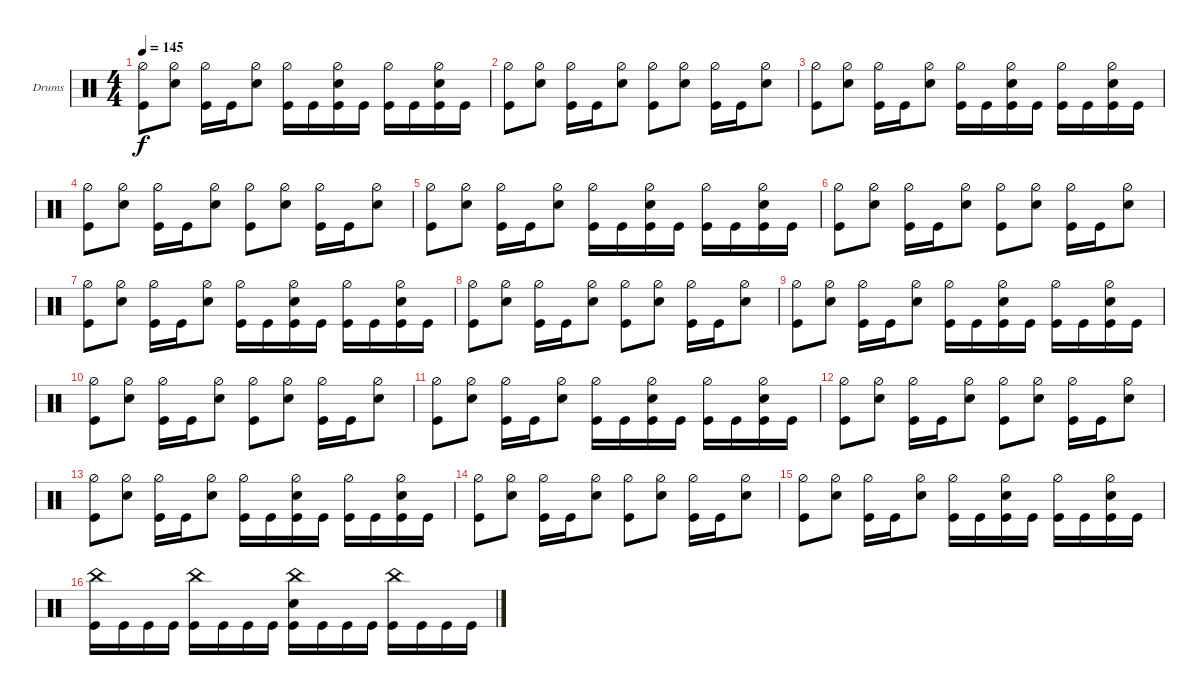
\bracketExtendMode groupsimilarinstruments
\firstSystemTrackNameOrientation horizontal
\otherSystemsTrackNameOrientation horizontal
\track ("Drumkit" "Drums") {instrument percussion}
\staff {score}
\articulation defaults
\ts (4 4)
\tempo 145
\clef neutral
\ks c
("Kick (hit)" "Hi-Hat (half)").8{dy f} ("Snare (hit) 2" "Hi-Hat (half)").8 ("Kick (hit)" "Hi-Hat (half)").16 "Kick (hit)".16 ("Snare (hit) 2" "Hi-Hat (half)").8 ("Kick (hit)" "Hi-Hat (half)").16 "Kick (hit)".16 ("Snare (hit) 2" "Kick (hit)" "Hi-Hat (half)").16 "Kick (hit)".16 ("Kick (hit)" "Hi-Hat (half)").16 "Kick (hit)".16 ("Snare (hit) 2" "Kick (hit)" "Hi-Hat (half)").16 "Kick (hit)".16 |
("Kick (hit)" "Hi-Hat (half)").8 ("Snare (hit) 2" "Hi-Hat (half)").8 ("Kick (hit)" "Hi-Hat (half)").16 "Kick (hit)".16 ("Snare (hit) 2" "Hi-Hat (half)").8 ("Kick (hit)" "Hi-Hat (half)").8 ("Snare (hit) 2" "Hi-Hat (half)").8 ("Kick (hit)" "Hi-Hat (half)").16 "Kick (hit)".16 ("Snare (hit) 2" "Hi-Hat (half)").8 |
("Kick (hit)" "Hi-Hat (half)").8 ("Snare (hit) 2" "Hi-Hat (half)").8 ("Kick (hit)" "Hi-Hat (half)").16 "Kick (hit)".16 ("Snare (hit) 2" "Hi-Hat (half)").8 ("Kick (hit)" "Hi-Hat (half)").16 "Kick (hit)".16 ("Snare (hit) 2" "Kick (hit)" "Hi-Hat (half)").16 "Kick (hit)".16 ("Kick (hit)" "Hi-Hat (half)").16 "Kick (hit)".16 ("Snare (hit) 2" "Kick (hit)" "Hi-Hat (half)").16 "Kick (hit)".16 |
("Kick (hit)" "Hi-Hat (half)").8 ("Snare (hit) 2" "Hi-Hat (half)").8 ("Kick (hit)" "Hi-Hat (half)").16 "Kick (hit)".16 ("Snare (hit) 2" "Hi-Hat (half)").8 ("Kick (hit)" "Hi-Hat (half)").8 ("Snare (hit) 2" "Hi-Hat (half)").8 ("Kick (hit)" "Hi-Hat (half)").16 "Kick (hit)".16 ("Snare (hit) 2" "Hi-Hat (half)").8 |
("Kick (hit)" "Hi-Hat (half)").8 ("Snare (hit) 2" "Hi-Hat (half)").8 ("Kick (hit)" "Hi-Hat (half)").16 "Kick (hit)".16 ("Snare (hit) 2" "Hi-Hat (half)").8 ("Kick (hit)" "Hi-Hat (half)").16 "Kick (hit)".16 ("Snare (hit) 2" "Kick (hit)" "Hi-Hat (half)").16 "Kick (hit)".16 ("Kick (hit)" "Hi-Hat (half)").16 "Kick (hit)".16 ("Snare (hit) 2" "Kick (hit)" "Hi-Hat (half)").16 "Kick (hit)".16 |
("Kick (hit)" "Hi-Hat (half)").8 ("Snare (hit) 2" "Hi-Hat (half)").8 ("Kick (hit)" "Hi-Hat (half)").16 "Kick (hit)".16 ("Snare (hit) 2" "Hi-Hat (half)").8 ("Kick (hit)" "Hi-Hat (half)").8 ("Snare (hit) 2" "Hi-Hat (half)").8 ("Kick (hit)" "Hi-Hat (half)").16 "Kick (hit)".16 ("Snare (hit) 2" "Hi-Hat (half)").8 |
("Kick (hit)" "Hi-Hat (half)").8 ("Snare (hit) 2" "Hi-Hat (half)").8 ("Kick (hit)" "Hi-Hat (half)").16 "Kick (hit)".16 ("Snare (hit) 2" "Hi-Hat (half)").8 ("Kick (hit)" "Hi-Hat (half)").16 "Kick (hit)".16 ("Snare (hit) 2" "Kick (hit)" "Hi-Hat (half)").16 "Kick (hit)".16 ("Kick (hit)" "Hi-Hat (half)").16 "Kick (hit)".16 ("Snare (hit) 2" "Kick (hit)" "Hi-Hat (half)").16 "Kick (hit)".16 |
("Kick (hit)" "Hi-Hat (half)").8 ("Snare (hit) 2" "Hi-Hat (half)").8 ("Kick (hit)" "Hi-Hat (half)").16 "Kick (hit)".16 ("Snare (hit) 2" "Hi-Hat (half)").8 ("Kick (hit)" "Hi-Hat (half)").8 ("Snare (hit) 2" "Hi-Hat (half)").8 ("Kick (hit)" "Hi-Hat (half)").16 "Kick (hit)".16 ("Snare (hit) 2" "Hi-Hat (half)").8 |
("Kick (hit)" "Hi-Hat (half)").8 ("Snare (hit) 2" "Hi-Hat (half)").8 ("Kick (hit)" "Hi-Hat (half)").16 "Kick (hit)".16 ("Snare (hit) 2" "Hi-Hat (half)").8 ("Kick (hit)" "Hi-Hat (half)").16 "Kick (hit)".16 ("Snare (hit) 2" "Kick (hit)" "Hi-Hat (half)").16 "Kick (hit)".16 ("Kick (hit)" "Hi-Hat (half)").16 "Kick (hit)".16 ("Snare (hit) 2" "Kick (hit)" "Hi-Hat (half)").16 "Kick (hit)".16 |
("Kick (hit)" "Hi-Hat (half)").8 ("Snare (hit) 2" "Hi-Hat (half)").8 ("Kick (hit)" "Hi-Hat (half)").16 "Kick (hit)".16 ("Snare (hit) 2" "Hi-Hat (half)").8 ("Kick (hit)" "Hi-Hat (half)").8 ("Snare (hit) 2" "Hi-Hat (half)").8 ("Kick (hit)" "Hi-Hat (half)").16 "Kick (hit)".16 ("Snare (hit) 2" "Hi-Hat (half)").8 |
("Kick (hit)" "Hi-Hat (half)").8 ("Snare (hit) 2" "Hi-Hat (half)").8 ("Kick (hit)" "Hi-Hat (half)").16 "Kick (hit)".16 ("Snare (hit) 2" "Hi-Hat (half)").8 ("Kick (hit)" "Hi-Hat (half)").16 "Kick (hit)".16 ("Snare (hit) 2" "Kick (hit)" "Hi-Hat (half)").16 "Kick (hit)".16 ("Kick (hit)" "Hi-Hat (half)").16 "Kick (hit)".16 ("Snare (hit) 2" "Kick (hit)" "Hi-Hat (half)").16 "Kick (hit)".16 |
("Kick (hit)" "Hi-Hat (half)").8 ("Snare (hit) 2" "Hi-Hat (half)").8 ("Kick (hit)" "Hi-Hat (half)").16 "Kick (hit)".16 ("Snare (hit) 2" "Hi-Hat (half)").8 ("Kick (hit)" "Hi-Hat (half)").8 ("Snare (hit) 2" "Hi-Hat (half)").8 ("Kick (hit)" "Hi-Hat (half)").16 "Kick (hit)".16 ("Snare (hit) 2" "Hi-Hat (half)").8 |
("Kick (hit)" "Hi-Hat (half)").8 ("Snare (hit) 2" "Hi-Hat (half)").8 ("Kick (hit)" "Hi-Hat (half)").16 "Kick (hit)".16 ("Snare (hit) 2" "Hi-Hat (half)").8 ("Kick (hit)" "Hi-Hat (half)").16 "Kick (hit)".16 ("Snare (hit) 2" "Kick (hit)" "Hi-Hat (half)").16 "Kick (hit)".16 ("Kick (hit)" "Hi-Hat (half)").16 "Kick (hit)".16 ("Snare (hit) 2" "Kick (hit)" "Hi-Hat (half)").16 "Kick (hit)".16 |
("Kick (hit)" "Hi-Hat (half)").8 ("Snare (hit) 2" "Hi-Hat (half)").8 ("Kick (hit)" "Hi-Hat (half)").16 "Kick (hit)".16 ("Snare (hit) 2" "Hi-Hat (half)").8 ("Kick (hit)" "Hi-Hat (half)").8 ("Snare (hit) 2" "Hi-Hat (half)").8 ("Kick (hit)" "Hi-Hat (half)").16 "Kick (hit)".16 ("Snare (hit) 2" "Hi-Hat (half)").8 |
("Kick (hit)" "Hi-Hat (half)").8 ("Snare (hit) 2" "Hi-Hat (half)").8 ("Kick (hit)" "Hi-Hat (half)").16 "Kick (hit)".16 ("Snare (hit) 2" "Hi-Hat (half)").8 ("Kick (hit)" "Hi-Hat (half)").16 "Kick (hit)".16 ("Snare (hit) 2" "Kick (hit)" "Hi-Hat (half)").16 "Kick (hit)".16 ("Kick (hit)" "Hi-Hat (half)").16 "Kick (hit)".16 ("Snare (hit) 2" "Kick (hit)" "Hi-Hat (half)").16 "Kick (hit)".16 |
("Kick (hit)" "China (hit)").16 "Kick (hit)".16 "Kick (hit)".16 "Kick (hit)".16 ("Kick (hit)" "China (hit)").16 "Kick (hit)".16 "Kick (hit)".16 "Kick (hit)".16 ("Snare (hit) 2" "Kick (hit)" "China (hit)").16 "Kick (hit)".16 "Kick (hit)".16 "Kick (hit)".16 ("Kick (hit)" "China (hit)").16 "Kick (hit)".16 "Kick (hit)".16 "Kick (hit)".16
